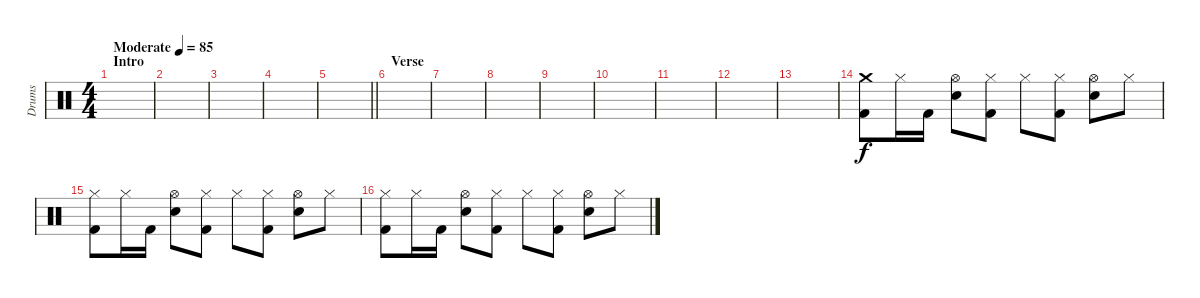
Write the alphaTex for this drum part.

\track ("Drums" "Drums") {instrument percussion}
\staff {score}
\articulation defaults
\ts (4 4)
\section ("" "Intro")
\tempo (85 "Moderate")
\clef neutral
\ks c
|
|
|
|
\barLineRight lightlight
|
\section ("" "Verse")
|
|
|
|
|
|
|
|
("Crash medium (hit)" "Kick (hit) 2").8 "Hi-Hat (closed)".16 "Kick (hit) 2".16 ("Hi-Hat (open)" "Snare (hit) 2").8 ("Hi-Hat (closed)" "Kick (hit) 2").8 "Hi-Hat (closed)".8 ("Hi-Hat (closed)" "Kick (hit) 2").8 ("Hi-Hat (open)" "Snare (hit) 2").8 "Hi-Hat (closed)".8 |
("Hi-Hat (closed)" "Kick (hit) 2").8 "Hi-Hat (closed)".16 "Kick (hit) 2".16 ("Hi-Hat (open)" "Snare (hit) 2").8 ("Hi-Hat (closed)" "Kick (hit) 2").8 "Hi-Hat (closed)".8 ("Hi-Hat (closed)" "Kick (hit) 2").8 ("Hi-Hat (open)" "Snare (hit) 2").8 "Hi-Hat (closed)".8 |
("Hi-Hat (closed)" "Kick (hit) 2").8 "Hi-Hat (closed)".16 "Kick (hit) 2".16 ("Hi-Hat (open)" "Snare (hit) 2").8 ("Hi-Hat (closed)" "Kick (hit) 2").8 "Hi-Hat (closed)".8 ("Hi-Hat (closed)" "Kick (hit) 2").8 ("Hi-Hat (open)" "Snare (hit) 2").8 "Hi-Hat (closed)".8
